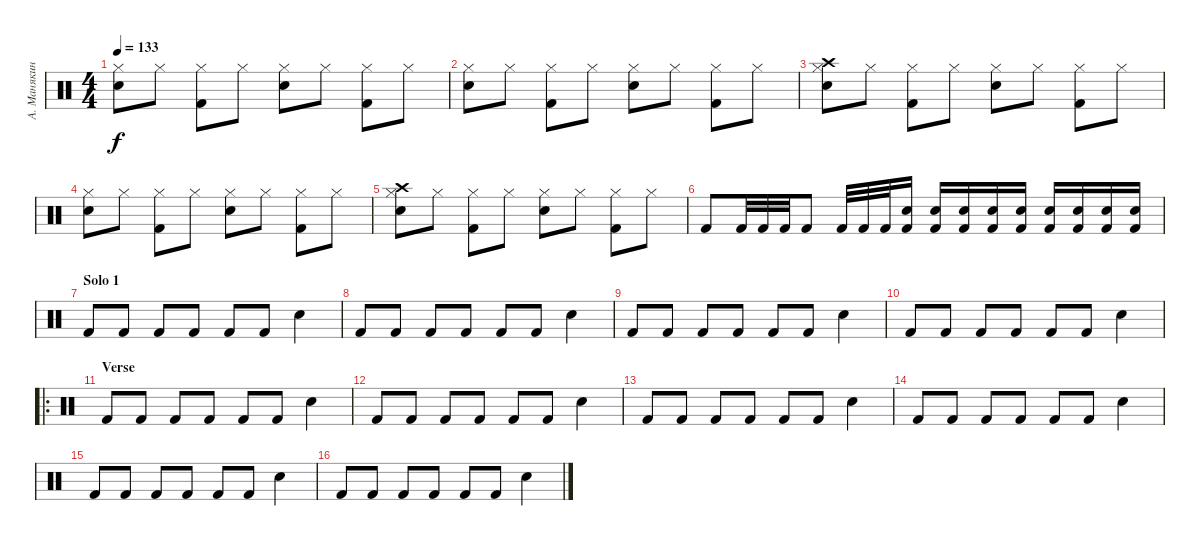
\track ("А. Манякин" "А. Манякин") {instrument percussion}
\staff {score}
\articulation defaults
\ts (4 4)
\tempo 133
\clef neutral
\ks c
("Hi-Hat (closed)" "Snare (hit) 2").8{dy f} "Hi-Hat (closed)".8 ("Hi-Hat (closed)" "Kick (hit) 2").8 "Hi-Hat (closed)".8 ("Hi-Hat (closed)" "Snare (hit) 2").8 "Hi-Hat (closed)".8 ("Hi-Hat (closed)" "Kick (hit) 2").8 "Hi-Hat (closed)".8 |
("Hi-Hat (closed)" "Snare (hit) 2").8 "Hi-Hat (closed)".8 ("Hi-Hat (closed)" "Kick (hit) 2").8 "Hi-Hat (closed)".8 ("Hi-Hat (closed)" "Snare (hit) 2").8 "Hi-Hat (closed)".8 ("Hi-Hat (closed)" "Kick (hit) 2").8 "Hi-Hat (closed)".8 |
("Hi-Hat (closed)" "Snare (hit) 2" "Crash high (hit)").8 "Hi-Hat (closed)".8 ("Hi-Hat (closed)" "Kick (hit) 2").8 "Hi-Hat (closed)".8 ("Hi-Hat (closed)" "Snare (hit) 2").8 "Hi-Hat (closed)".8 ("Hi-Hat (closed)" "Kick (hit) 2").8 "Hi-Hat (closed)".8 |
("Hi-Hat (closed)" "Snare (hit) 2").8 "Hi-Hat (closed)".8 ("Hi-Hat (closed)" "Kick (hit) 2").8 "Hi-Hat (closed)".8 ("Hi-Hat (closed)" "Snare (hit) 2").8 "Hi-Hat (closed)".8 ("Hi-Hat (closed)" "Kick (hit) 2").8 "Hi-Hat (closed)".8 |
("Hi-Hat (closed)" "Snare (hit) 2" "Crash high (hit)").8 "Hi-Hat (closed)".8 ("Hi-Hat (closed)" "Kick (hit) 2").8 "Hi-Hat (closed)".8 ("Hi-Hat (closed)" "Snare (hit) 2").8 "Hi-Hat (closed)".8 ("Hi-Hat (closed)" "Kick (hit) 2").8 "Hi-Hat (closed)".8 |
"Kick (hit) 2".8 "Kick (hit) 2".32 "Kick (hit) 2".32 "Kick (hit) 2".32 "Kick (hit) 2".8 "Kick (hit) 2".32 "Kick (hit) 2".32 "Kick (hit) 2".32 ("Snare (hit) 2" "Kick (hit) 2").16 ("Snare (hit) 2" "Kick (hit) 2").16 ("Snare (hit) 2" "Kick (hit) 2").16 ("Snare (hit) 2" "Kick (hit) 2").16 ("Snare (hit) 2" "Kick (hit) 2").16 ("Snare (hit) 2" "Kick (hit) 2").16 ("Snare (hit) 2" "Kick (hit) 2").16 ("Snare (hit) 2" "Kick (hit) 2").16 ("Snare (hit) 2" "Kick (hit) 2").16 |
\section ("" "Solo 1")
"Kick (hit) 2".8 "Kick (hit) 2".8 "Kick (hit) 2".8 "Kick (hit) 2".8 "Kick (hit) 2".8 "Kick (hit) 2".8 "Snare (hit) 2".4 |
"Kick (hit) 2".8 "Kick (hit) 2".8 "Kick (hit) 2".8 "Kick (hit) 2".8 "Kick (hit) 2".8 "Kick (hit) 2".8 "Snare (hit) 2".4 |
"Kick (hit) 2".8 "Kick (hit) 2".8 "Kick (hit) 2".8 "Kick (hit) 2".8 "Kick (hit) 2".8 "Kick (hit) 2".8 "Snare (hit) 2".4 |
"Kick (hit) 2".8 "Kick (hit) 2".8 "Kick (hit) 2".8 "Kick (hit) 2".8 "Kick (hit) 2".8 "Kick (hit) 2".8 "Snare (hit) 2".4 |
\ro
\section ("" "Verse")
"Kick (hit) 2".8 "Kick (hit) 2".8 "Kick (hit) 2".8 "Kick (hit) 2".8 "Kick (hit) 2".8 "Kick (hit) 2".8 "Snare (hit) 2".4 |
"Kick (hit) 2".8 "Kick (hit) 2".8 "Kick (hit) 2".8 "Kick (hit) 2".8 "Kick (hit) 2".8 "Kick (hit) 2".8 "Snare (hit) 2".4 |
"Kick (hit) 2".8 "Kick (hit) 2".8 "Kick (hit) 2".8 "Kick (hit) 2".8 "Kick (hit) 2".8 "Kick (hit) 2".8 "Snare (hit) 2".4 |
"Kick (hit) 2".8 "Kick (hit) 2".8 "Kick (hit) 2".8 "Kick (hit) 2".8 "Kick (hit) 2".8 "Kick (hit) 2".8 "Snare (hit) 2".4 |
"Kick (hit) 2".8 "Kick (hit) 2".8 "Kick (hit) 2".8 "Kick (hit) 2".8 "Kick (hit) 2".8 "Kick (hit) 2".8 "Snare (hit) 2".4 |
"Kick (hit) 2".8 "Kick (hit) 2".8 "Kick (hit) 2".8 "Kick (hit) 2".8 "Kick (hit) 2".8 "Kick (hit) 2".8 "Snare (hit) 2".4
